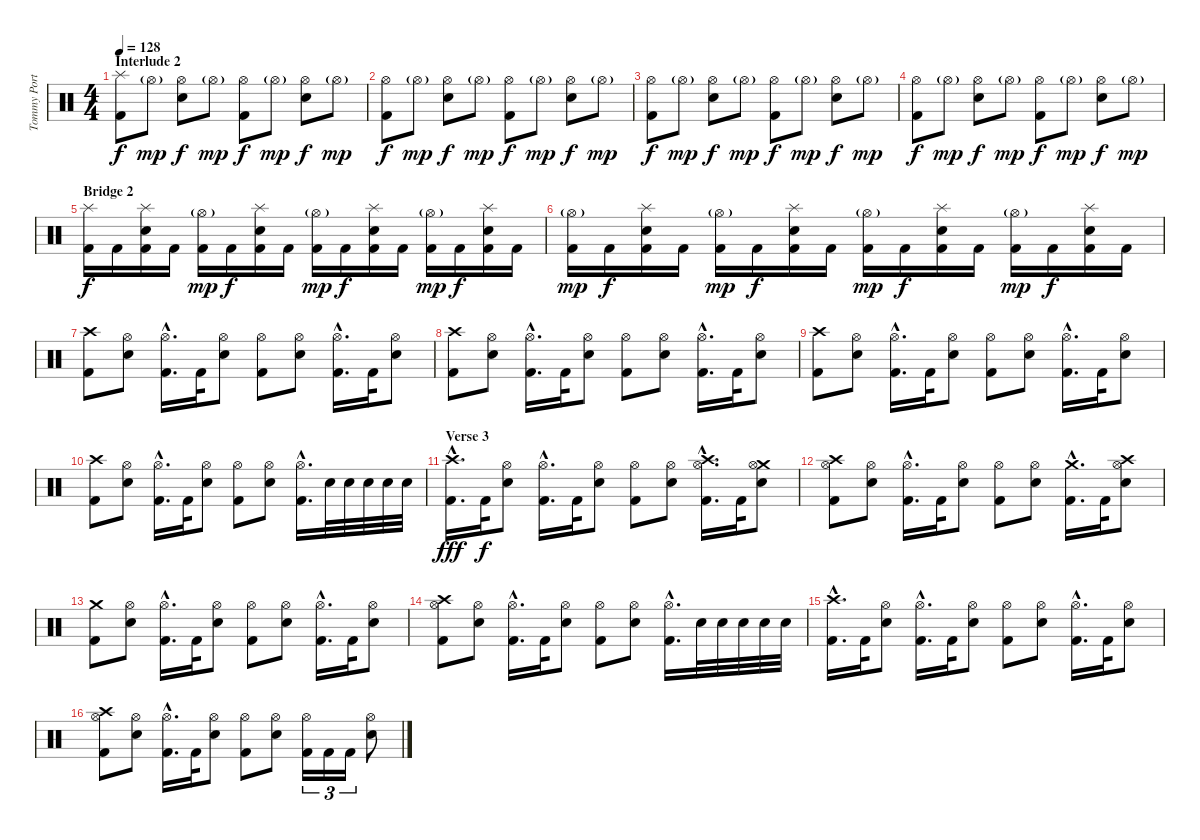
\track ("Tommy Portimo" "Tommy Port") {instrument percussion}
\staff {score}
\articulation defaults
\ts (4 4)
\section ("" "Interlude 2")
\tempo 128
\clef neutral
\ks c
("Splash (hit)" "Kick (hit) 2").8{dy f} "Hi-Hat (open)"{g}.8{dy mp} ("Hi-Hat (open)" "Snare (hit) 2").8{dy f} "Hi-Hat (open)"{g}.8{dy mp} ("Hi-Hat (open)" "Kick (hit) 2").8{dy f} "Hi-Hat (open)"{g}.8{dy mp} ("Hi-Hat (open)" "Snare (hit) 2").8{dy f} "Hi-Hat (open)"{g}.8{dy mp} |
("Hi-Hat (open)" "Kick (hit) 2").8{dy f} "Hi-Hat (open)"{g}.8{dy mp} ("Hi-Hat (open)" "Snare (hit) 2").8{dy f} "Hi-Hat (open)"{g}.8{dy mp} ("Hi-Hat (open)" "Kick (hit) 2").8{dy f} "Hi-Hat (open)"{g}.8{dy mp} ("Hi-Hat (open)" "Snare (hit) 2").8{dy f} "Hi-Hat (open)"{g}.8{dy mp} |
("Hi-Hat (open)" "Kick (hit) 2").8{dy f} "Hi-Hat (open)"{g}.8{dy mp} ("Hi-Hat (open)" "Snare (hit) 2").8{dy f} "Hi-Hat (open)"{g}.8{dy mp} ("Hi-Hat (open)" "Kick (hit) 2").8{dy f} "Hi-Hat (open)"{g}.8{dy mp} ("Hi-Hat (open)" "Snare (hit) 2").8{dy f} "Hi-Hat (open)"{g}.8{dy mp} |
("Hi-Hat (open)" "Kick (hit) 2").8{dy f} "Hi-Hat (open)"{g}.8{dy mp} ("Hi-Hat (open)" "Snare (hit) 2").8{dy f} "Hi-Hat (open)"{g}.8{dy mp} ("Hi-Hat (open)" "Kick (hit) 2").8{dy f} "Hi-Hat (open)"{g}.8{dy mp} ("Hi-Hat (open)" "Snare (hit) 2").8{dy f} "Hi-Hat (open)"{g}.8{dy mp} |
\section ("" "Bridge 2")
("Splash (hit)" "Kick (hit) 2").16{dy f} "Kick (hit) 2".16 ("Splash (hit)" "Snare (hit) 2" "Kick (hit) 2").16 "Kick (hit) 2".16 ("Hi-Hat (open)"{g} "Kick (hit) 2").16{dy mp} "Kick (hit) 2".16{dy f} ("Splash (hit)" "Snare (hit) 2" "Kick (hit) 2").16 "Kick (hit) 2".16 ("Hi-Hat (open)"{g} "Kick (hit) 2").16{dy mp} "Kick (hit) 2".16{dy f} ("Splash (hit)" "Snare (hit) 2" "Kick (hit) 2").16 "Kick (hit) 2".16 ("Hi-Hat (open)"{g} "Kick (hit) 2").16{dy mp} "Kick (hit) 2".16{dy f} ("Splash (hit)" "Snare (hit) 2" "Kick (hit) 2").16 "Kick (hit) 2".16 |
("Hi-Hat (open)"{g} "Kick (hit) 2").16{dy mp} "Kick (hit) 2".16{dy f} ("Splash (hit)" "Snare (hit) 2" "Kick (hit) 2").16 "Kick (hit) 2".16 ("Hi-Hat (open)"{g} "Kick (hit) 2").16{dy mp} "Kick (hit) 2".16{dy f} ("Splash (hit)" "Snare (hit) 2" "Kick (hit) 2").16 "Kick (hit) 2".16 ("Hi-Hat (open)"{g} "Kick (hit) 2").16{dy mp} "Kick (hit) 2".16{dy f} ("Splash (hit)" "Snare (hit) 2" "Kick (hit) 2").16 "Kick (hit) 2".16 ("Hi-Hat (open)"{g} "Kick (hit) 2").16{dy mp} "Kick (hit) 2".16{dy f} ("Splash (hit)" "Snare (hit) 2" "Kick (hit) 2").16 "Kick (hit) 2".16 |
("Crash high (hit)" "Kick (hit) 2").8 ("Hi-Hat (open)" "Snare (hit) 2").8 ("Hi-Hat (open)"{hac} "Kick (hit) 2"{hac}).16{d} "Kick (hit) 2".32 ("Hi-Hat (open)" "Snare (hit) 2").8 ("Hi-Hat (open)" "Kick (hit) 2").8 ("Hi-Hat (open)" "Snare (hit) 2").8 ("Hi-Hat (open)"{hac} "Kick (hit) 2"{hac}).16{d} "Kick (hit) 2".32 ("Hi-Hat (open)" "Snare (hit) 2").8 |
("Crash high (hit)" "Kick (hit) 2").8 ("Hi-Hat (open)" "Snare (hit) 2").8 ("Hi-Hat (open)"{hac} "Kick (hit) 2"{hac}).16{d} "Kick (hit) 2".32 ("Hi-Hat (open)" "Snare (hit) 2").8 ("Hi-Hat (open)" "Kick (hit) 2").8 ("Hi-Hat (open)" "Snare (hit) 2").8 ("Hi-Hat (open)"{hac} "Kick (hit) 2"{hac}).16{d} "Kick (hit) 2".32 ("Hi-Hat (open)" "Snare (hit) 2").8 |
("Crash high (hit)" "Kick (hit) 2").8 ("Hi-Hat (open)" "Snare (hit) 2").8 ("Hi-Hat (open)"{hac} "Kick (hit) 2"{hac}).16{d} "Kick (hit) 2".32 ("Hi-Hat (open)" "Snare (hit) 2").8 ("Hi-Hat (open)" "Kick (hit) 2").8 ("Hi-Hat (open)" "Snare (hit) 2").8 ("Hi-Hat (open)"{hac} "Kick (hit) 2"{hac}).16{d} "Kick (hit) 2".32 ("Hi-Hat (open)" "Snare (hit) 2").8 |
("Crash high (hit)" "Kick (hit) 2").8 ("Hi-Hat (open)" "Snare (hit) 2").8 ("Hi-Hat (open)"{hac} "Kick (hit) 2"{hac}).16{d} "Kick (hit) 2".32 ("Hi-Hat (open)" "Snare (hit) 2").8 ("Hi-Hat (open)" "Kick (hit) 2").8 ("Hi-Hat (open)" "Snare (hit) 2").8 ("Hi-Hat (open)"{hac} "Kick (hit) 2"{hac}).16{d} "Snare (hit) 2".32 "Snare (hit) 2".32 "Snare (hit) 2".32 "Snare (hit) 2".32 "Snare (hit) 2".32 |
\section ("" "Verse 3")
("Crash high (hit)"{hac} "Kick (hit) 2"{hac}).16{d dy fff} "Kick (hit) 2".32{dy f} ("Hi-Hat (open)" "Snare (hit) 2").8 ("Hi-Hat (open)"{hac} "Kick (hit) 2"{hac}).16{d} "Kick (hit) 2".32 ("Hi-Hat (open)" "Snare (hit) 2").8 ("Hi-Hat (open)" "Kick (hit) 2").8 ("Hi-Hat (open)" "Snare (hit) 2").8 ("Crash high (hit)"{hac} "Hi-Hat (open)"{hac} "Kick (hit) 2"{hac}).16{d} "Kick (hit) 2".32 ("Crash medium (hit)" "Hi-Hat (open)" "Snare (hit) 2").8 |
("Crash high (hit)" "Hi-Hat (open)" "Kick (hit) 2").8 ("Hi-Hat (open)" "Snare (hit) 2").8 ("Hi-Hat (open)"{hac} "Kick (hit) 2"{hac}).16{d} "Kick (hit) 2".32 ("Hi-Hat (open)" "Snare (hit) 2").8 ("Hi-Hat (open)" "Kick (hit) 2").8 ("Hi-Hat (open)" "Snare (hit) 2").8 ("Crash medium (hit)"{hac} "Kick (hit) 2"{hac}).16{d} "Kick (hit) 2".32 ("Crash high (hit)" "Hi-Hat (open)" "Snare (hit) 2").8 |
("Crash medium (hit)" "Kick (hit) 2").8 ("Hi-Hat (open)" "Snare (hit) 2").8 ("Hi-Hat (open)"{hac} "Kick (hit) 2"{hac}).16{d} "Kick (hit) 2".32 ("Hi-Hat (open)" "Snare (hit) 2").8 ("Hi-Hat (open)" "Kick (hit) 2").8 ("Hi-Hat (open)" "Snare (hit) 2").8 ("Hi-Hat (open)"{hac} "Kick (hit) 2"{hac}).16{d} "Kick (hit) 2".32 ("Hi-Hat (open)" "Snare (hit) 2").8 |
("Crash high (hit)" "Hi-Hat (open)" "Kick (hit) 2").8 ("Hi-Hat (open)" "Snare (hit) 2").8 ("Hi-Hat (open)"{hac} "Kick (hit) 2"{hac}).16{d} "Kick (hit) 2".32 ("Hi-Hat (open)" "Snare (hit) 2").8 ("Hi-Hat (open)" "Kick (hit) 2").8 ("Hi-Hat (open)" "Snare (hit) 2").8 ("Hi-Hat (open)"{hac} "Kick (hit) 2"{hac}).16{d} "Snare (hit) 2".32 "Snare (hit) 2".32 "Snare (hit) 2".32 "Snare (hit) 2".32 "Snare (hit) 2".32 |
("Crash high (hit)"{hac} "Kick (hit) 2"{hac}).16{d} "Kick (hit) 2".32 ("Hi-Hat (open)" "Snare (hit) 2").8 ("Hi-Hat (open)"{hac} "Kick (hit) 2"{hac}).16{d} "Kick (hit) 2".32 ("Hi-Hat (open)" "Snare (hit) 2").8 ("Hi-Hat (open)" "Kick (hit) 2").8 ("Hi-Hat (open)" "Snare (hit) 2").8 ("Hi-Hat (open)"{hac} "Kick (hit) 2"{hac}).16{d} "Kick (hit) 2".32 ("Hi-Hat (open)" "Snare (hit) 2").8 |
("Crash high (hit)" "Hi-Hat (open)" "Kick (hit) 2").8 ("Hi-Hat (open)" "Snare (hit) 2").8 ("Hi-Hat (open)"{hac} "Kick (hit) 2"{hac}).16{d} "Kick (hit) 2".32 ("Hi-Hat (open)" "Snare (hit) 2").8 ("Hi-Hat (open)" "Kick (hit) 2").8 ("Hi-Hat (open)" "Snare (hit) 2").8 ("Hi-Hat (open)" "Kick (hit) 2").16{tu (3 2)} "Kick (hit) 2".16{tu (3 2)} "Kick (hit) 2".16{tu (3 2)} ("Hi-Hat (open)" "Snare (hit) 2").8
